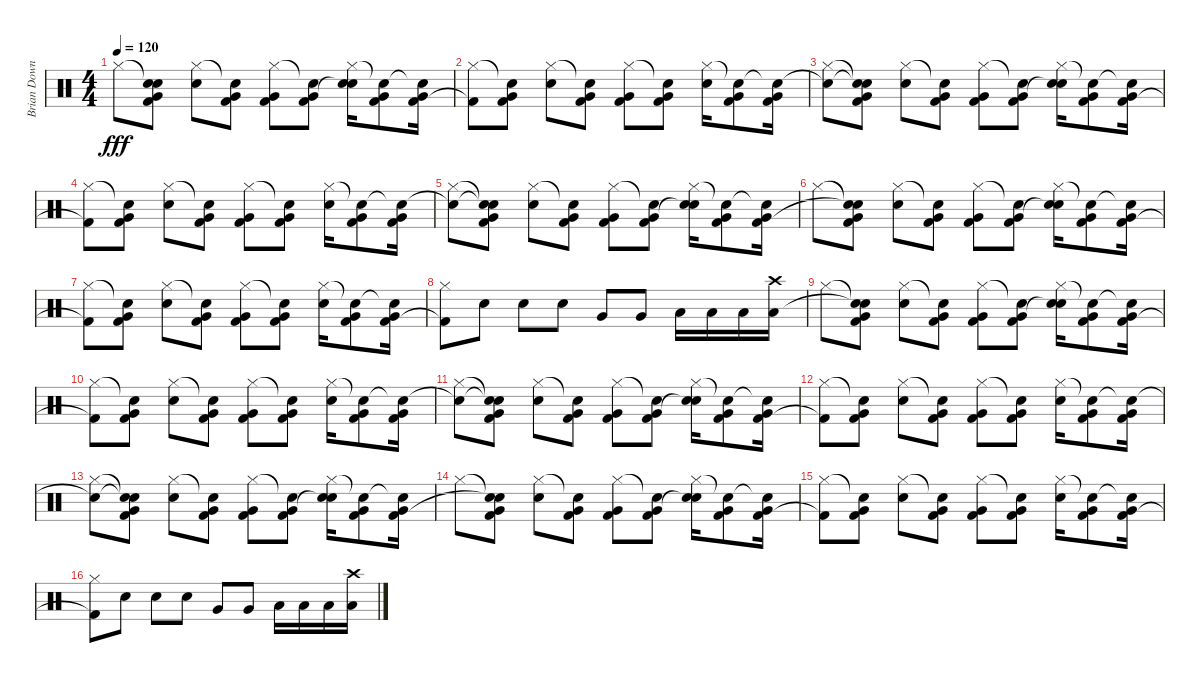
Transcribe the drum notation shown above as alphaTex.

\track ("Brian Downey" "Brian Down") {instrument percussion}
\staff {score}
\articulation defaults
\ts (4 4)
\tempo 120
\clef neutral
\ks c "Hi-Hat (closed)".8{dy fff}
("Snare (hit)"{t} "Snare (hit)"{t} "Kick (hit) 2" "Very Low Tom (hit)").8 ("Hi-Hat (closed)" "Electric Snare (hit)").8 ("Snare (hit)"{t} "Kick (hit) 2" "Very Low Tom (hit)").8 ("Hi-Hat (closed)" "Kick (hit) 2" "Very Low Tom (hit)").8 ("Snare (hit)"{t} "Kick (hit) 2" "Very Low Tom (hit)").8 ("Hi-Hat (closed)" "Electric Snare (hit)" "Snare (hit)"{t}).16 ("Snare (hit)"{t} "Kick (hit) 2" "Very Low Tom (hit)").8 ("Snare (hit)"{t} "Kick (hit) 2" "Very Low Tom (hit)").16 |
("Hi-Hat (closed)" "Kick (hit) 2"{t}).8 ("Snare (hit)"{t} "Kick (hit) 2" "Very Low Tom (hit)").8 ("Hi-Hat (closed)" "Electric Snare (hit)").8 ("Snare (hit)"{t} "Kick (hit) 2" "Very Low Tom (hit)").8 ("Hi-Hat (closed)" "Kick (hit) 2" "Very Low Tom (hit)").8 ("Snare (hit)"{t} "Kick (hit) 2" "Very Low Tom (hit)").8 ("Hi-Hat (closed)" "Electric Snare (hit)").16 ("Snare (hit)"{t} "Kick (hit) 2" "Very Low Tom (hit)").8 ("Snare (hit)"{t} "Kick (hit) 2" "Very Low Tom (hit)").16 |
("Snare (hit)"{t} "Hi-Hat (closed)").8 ("Snare (hit)"{t} "Snare (hit)"{t} "Kick (hit) 2" "Very Low Tom (hit)").8 ("Hi-Hat (closed)" "Electric Snare (hit)").8 ("Snare (hit)"{t} "Kick (hit) 2" "Very Low Tom (hit)").8 ("Hi-Hat (closed)" "Kick (hit) 2" "Very Low Tom (hit)").8 ("Snare (hit)"{t} "Kick (hit) 2" "Very Low Tom (hit)").8 ("Hi-Hat (closed)" "Electric Snare (hit)" "Snare (hit)"{t}).16 ("Snare (hit)"{t} "Kick (hit) 2" "Very Low Tom (hit)").8 ("Snare (hit)"{t} "Kick (hit) 2" "Very Low Tom (hit)").16 |
("Hi-Hat (closed)" "Kick (hit) 2"{t}).8 ("Snare (hit)"{t} "Kick (hit) 2" "Very Low Tom (hit)").8 ("Hi-Hat (closed)" "Electric Snare (hit)").8 ("Snare (hit)"{t} "Kick (hit) 2" "Very Low Tom (hit)").8 ("Hi-Hat (closed)" "Kick (hit) 2" "Very Low Tom (hit)").8 ("Snare (hit)"{t} "Kick (hit) 2" "Very Low Tom (hit)").8 ("Hi-Hat (closed)" "Electric Snare (hit)").16 ("Snare (hit)"{t} "Kick (hit) 2" "Very Low Tom (hit)").8 ("Snare (hit)"{t} "Kick (hit) 2" "Very Low Tom (hit)").16 |
("Snare (hit)"{t} "Hi-Hat (closed)").8 ("Snare (hit)"{t} "Snare (hit)"{t} "Kick (hit) 2" "Very Low Tom (hit)").8 ("Hi-Hat (closed)" "Electric Snare (hit)").8 ("Snare (hit)"{t} "Kick (hit) 2" "Very Low Tom (hit)").8 ("Hi-Hat (closed)" "Kick (hit) 2" "Very Low Tom (hit)").8 ("Snare (hit)"{t} "Kick (hit) 2" "Very Low Tom (hit)").8 ("Hi-Hat (closed)" "Electric Snare (hit)" "Snare (hit)"{t}).16 ("Snare (hit)"{t} "Kick (hit) 2" "Very Low Tom (hit)").8 ("Snare (hit)"{t} "Kick (hit) 2" "Very Low Tom (hit)").16 |
"Hi-Hat (closed)".8 ("Snare (hit)"{t} "Snare (hit)"{t} "Kick (hit) 2" "Very Low Tom (hit)").8 ("Hi-Hat (closed)" "Electric Snare (hit)").8 ("Snare (hit)"{t} "Kick (hit) 2" "Very Low Tom (hit)").8 ("Hi-Hat (closed)" "Kick (hit) 2" "Very Low Tom (hit)").8 ("Snare (hit)"{t} "Kick (hit) 2" "Very Low Tom (hit)").8 ("Hi-Hat (closed)" "Electric Snare (hit)" "Snare (hit)"{t}).16 ("Snare (hit)"{t} "Kick (hit) 2" "Very Low Tom (hit)").8 ("Snare (hit)"{t} "Kick (hit) 2" "Very Low Tom (hit)").16 |
("Hi-Hat (closed)" "Kick (hit) 2"{t}).8 ("Snare (hit)"{t} "Kick (hit) 2" "Very Low Tom (hit)").8 ("Hi-Hat (closed)" "Electric Snare (hit)").8 ("Snare (hit)"{t} "Kick (hit) 2" "Very Low Tom (hit)").8 ("Hi-Hat (closed)" "Kick (hit) 2" "Very Low Tom (hit)").8 ("Snare (hit)"{t} "Kick (hit) 2" "Very Low Tom (hit)").8 ("Hi-Hat (closed)" "Electric Snare (hit)").16 ("Snare (hit)"{t} "Kick (hit) 2" "Very Low Tom (hit)").8 ("Snare (hit)"{t} "Kick (hit) 2" "Very Low Tom (hit)").16 |
("Hi-Hat (closed)" "Kick (hit) 2"{t}).8 "Electric Snare (hit)".8 "Electric Snare (hit)".8 "Electric Snare (hit)".8 "Very Low Tom (hit)".8 "Very Low Tom (hit)".8 "Low Floor Tom (hit)".16 "Low Floor Tom (hit)".16 "Low Floor Tom (hit)".16 ("Crash high (hit)" "Low Floor Tom (hit)").16 |
"Hi-Hat (closed)".8 ("Snare (hit)"{t} "Snare (hit)"{t} "Kick (hit) 2" "Very Low Tom (hit)").8 ("Hi-Hat (closed)" "Electric Snare (hit)").8 ("Snare (hit)"{t} "Kick (hit) 2" "Very Low Tom (hit)").8 ("Hi-Hat (closed)" "Kick (hit) 2" "Very Low Tom (hit)").8 ("Snare (hit)"{t} "Kick (hit) 2" "Very Low Tom (hit)").8 ("Hi-Hat (closed)" "Electric Snare (hit)" "Snare (hit)"{t}).16 ("Snare (hit)"{t} "Kick (hit) 2" "Very Low Tom (hit)").8 ("Snare (hit)"{t} "Kick (hit) 2" "Very Low Tom (hit)").16 |
("Hi-Hat (closed)" "Kick (hit) 2"{t}).8 ("Snare (hit)"{t} "Kick (hit) 2" "Very Low Tom (hit)").8 ("Hi-Hat (closed)" "Electric Snare (hit)").8 ("Snare (hit)"{t} "Kick (hit) 2" "Very Low Tom (hit)").8 ("Hi-Hat (closed)" "Kick (hit) 2" "Very Low Tom (hit)").8 ("Snare (hit)"{t} "Kick (hit) 2" "Very Low Tom (hit)").8 ("Hi-Hat (closed)" "Electric Snare (hit)").16 ("Snare (hit)"{t} "Kick (hit) 2" "Very Low Tom (hit)").8 ("Snare (hit)"{t} "Kick (hit) 2" "Very Low Tom (hit)").16 |
("Snare (hit)"{t} "Hi-Hat (closed)").8 ("Snare (hit)"{t} "Snare (hit)"{t} "Kick (hit) 2" "Very Low Tom (hit)").8 ("Hi-Hat (closed)" "Electric Snare (hit)").8 ("Snare (hit)"{t} "Kick (hit) 2" "Very Low Tom (hit)").8 ("Hi-Hat (closed)" "Kick (hit) 2" "Very Low Tom (hit)").8 ("Snare (hit)"{t} "Kick (hit) 2" "Very Low Tom (hit)").8 ("Hi-Hat (closed)" "Electric Snare (hit)" "Snare (hit)"{t}).16 ("Snare (hit)"{t} "Kick (hit) 2" "Very Low Tom (hit)").8 ("Snare (hit)"{t} "Kick (hit) 2" "Very Low Tom (hit)").16 |
("Hi-Hat (closed)" "Kick (hit) 2"{t}).8 ("Snare (hit)"{t} "Kick (hit) 2" "Very Low Tom (hit)").8 ("Hi-Hat (closed)" "Electric Snare (hit)").8 ("Snare (hit)"{t} "Kick (hit) 2" "Very Low Tom (hit)").8 ("Hi-Hat (closed)" "Kick (hit) 2" "Very Low Tom (hit)").8 ("Snare (hit)"{t} "Kick (hit) 2" "Very Low Tom (hit)").8 ("Hi-Hat (closed)" "Electric Snare (hit)").16 ("Snare (hit)"{t} "Kick (hit) 2" "Very Low Tom (hit)").8 ("Snare (hit)"{t} "Kick (hit) 2" "Very Low Tom (hit)").16 |
("Snare (hit)"{t} "Hi-Hat (closed)").8 ("Snare (hit)"{t} "Snare (hit)"{t} "Kick (hit) 2" "Very Low Tom (hit)").8 ("Hi-Hat (closed)" "Electric Snare (hit)").8 ("Snare (hit)"{t} "Kick (hit) 2" "Very Low Tom (hit)").8 ("Hi-Hat (closed)" "Kick (hit) 2" "Very Low Tom (hit)").8 ("Snare (hit)"{t} "Kick (hit) 2" "Very Low Tom (hit)").8 ("Hi-Hat (closed)" "Electric Snare (hit)" "Snare (hit)"{t}).16 ("Snare (hit)"{t} "Kick (hit) 2" "Very Low Tom (hit)").8 ("Snare (hit)"{t} "Kick (hit) 2" "Very Low Tom (hit)").16 |
"Hi-Hat (closed)".8 ("Snare (hit)"{t} "Snare (hit)"{t} "Kick (hit) 2" "Very Low Tom (hit)").8 ("Hi-Hat (closed)" "Electric Snare (hit)").8 ("Snare (hit)"{t} "Kick (hit) 2" "Very Low Tom (hit)").8 ("Hi-Hat (closed)" "Kick (hit) 2" "Very Low Tom (hit)").8 ("Snare (hit)"{t} "Kick (hit) 2" "Very Low Tom (hit)").8 ("Hi-Hat (closed)" "Electric Snare (hit)" "Snare (hit)"{t}).16 ("Snare (hit)"{t} "Kick (hit) 2" "Very Low Tom (hit)").8 ("Snare (hit)"{t} "Kick (hit) 2" "Very Low Tom (hit)").16 |
("Hi-Hat (closed)" "Kick (hit) 2"{t}).8 ("Snare (hit)"{t} "Kick (hit) 2" "Very Low Tom (hit)").8 ("Hi-Hat (closed)" "Electric Snare (hit)").8 ("Snare (hit)"{t} "Kick (hit) 2" "Very Low Tom (hit)").8 ("Hi-Hat (closed)" "Kick (hit) 2" "Very Low Tom (hit)").8 ("Snare (hit)"{t} "Kick (hit) 2" "Very Low Tom (hit)").8 ("Hi-Hat (closed)" "Electric Snare (hit)").16 ("Snare (hit)"{t} "Kick (hit) 2" "Very Low Tom (hit)").8 ("Snare (hit)"{t} "Kick (hit) 2" "Very Low Tom (hit)").16 |
("Hi-Hat (closed)" "Kick (hit) 2"{t}).8 "Electric Snare (hit)".8 "Electric Snare (hit)".8 "Electric Snare (hit)".8 "Very Low Tom (hit)".8 "Very Low Tom (hit)".8 "Low Floor Tom (hit)".16 "Low Floor Tom (hit)".16 "Low Floor Tom (hit)".16 ("Crash high (hit)" "Low Floor Tom (hit)").16
